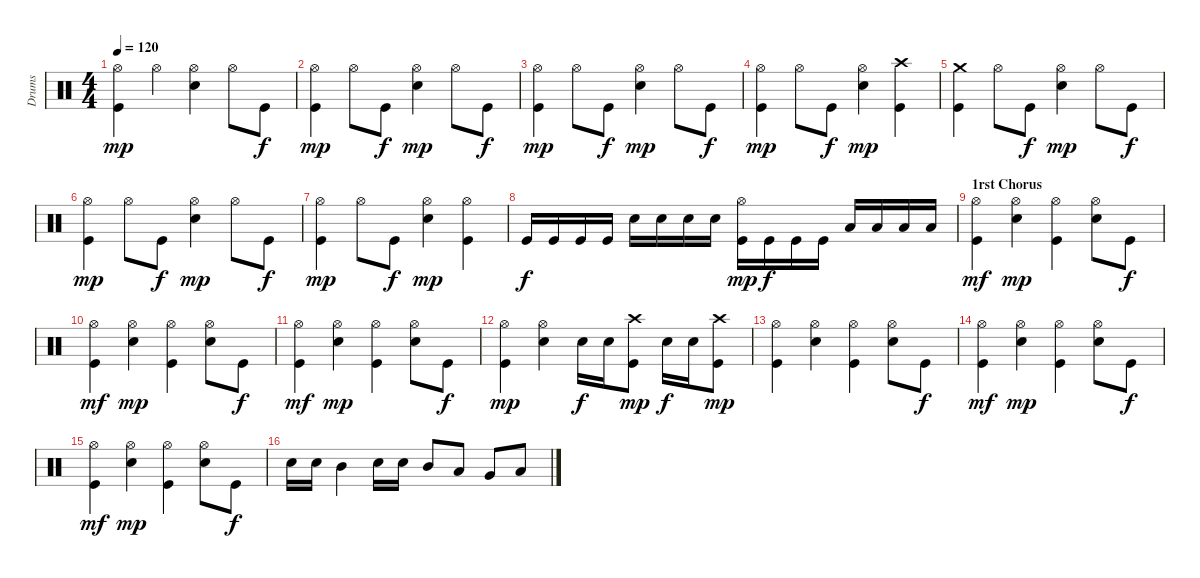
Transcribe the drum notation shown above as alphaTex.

\track ("Drums" "Drums") {instrument percussion}
\staff {score}
\articulation defaults
\ts (4 4)
\tempo 120
\clef neutral
\ks c
("Hi-Hat (open)" "Kick (hit)").4{dy mp} "Hi-Hat (open)".4 ("Hi-Hat (open)" "Electric Snare (hit)").4 "Hi-Hat (open)".8 "Kick (hit)".8{dy f} |
("Hi-Hat (open)" "Kick (hit)").4{dy mp} "Hi-Hat (open)".8 "Kick (hit)".8{dy f} ("Hi-Hat (open)" "Electric Snare (hit)").4{dy mp} "Hi-Hat (open)".8 "Kick (hit)".8{dy f} |
("Hi-Hat (open)" "Kick (hit)").4{dy mp} "Hi-Hat (open)".8 "Kick (hit)".8{dy f} ("Hi-Hat (open)" "Electric Snare (hit)").4{dy mp} "Hi-Hat (open)".8 "Kick (hit)".8{dy f} |
("Hi-Hat (open)" "Kick (hit)").4{dy mp} "Hi-Hat (open)".8 "Kick (hit)".8{dy f} ("Hi-Hat (open)" "Electric Snare (hit)").4{dy mp} ("Crash high (hit)" "Kick (hit)").4 |
("Crash medium (hit)" "Kick (hit)").4 "Hi-Hat (open)".8 "Kick (hit)".8{dy f} ("Hi-Hat (open)" "Electric Snare (hit)").4{dy mp} "Hi-Hat (open)".8 "Kick (hit)".8{dy f} |
("Hi-Hat (open)" "Kick (hit)").4{dy mp} "Hi-Hat (open)".8 "Kick (hit)".8{dy f} ("Hi-Hat (open)" "Electric Snare (hit)").4{dy mp} "Hi-Hat (open)".8 "Kick (hit)".8{dy f} |
("Hi-Hat (open)" "Kick (hit)").4{dy mp} "Hi-Hat (open)".8 "Kick (hit)".8{dy f} ("Hi-Hat (open)" "Electric Snare (hit)").4{dy mp} ("Hi-Hat (open)" "Kick (hit)").4 |
"Kick (hit)".16{dy f} "Kick (hit)".16 "Kick (hit)".16 "Kick (hit)".16 "Electric Snare (hit)".16 "Electric Snare (hit)".16 "Electric Snare (hit)".16 "Electric Snare (hit)".16 ("Hi-Hat (open)" "Kick (hit)").16{dy mp} "Kick (hit)".16{dy f} "Kick (hit)".16 "Kick (hit)".16 "Low Floor Tom (hit)".16 "Low Floor Tom (hit)".16 "Low Floor Tom (hit)".16 "Low Floor Tom (hit)".16 |
\section ("" "1rst Chorus")
("Hi-Hat (open)" "Kick (hit)").4{dy mf} ("Hi-Hat (open)" "Electric Snare (hit)").4{dy mp} ("Hi-Hat (open)" "Kick (hit)").4 ("Hi-Hat (open)" "Electric Snare (hit)").8 "Kick (hit)".8{dy f} |
("Hi-Hat (open)" "Kick (hit)").4{dy mf} ("Hi-Hat (open)" "Electric Snare (hit)").4{dy mp} ("Hi-Hat (open)" "Kick (hit)").4 ("Hi-Hat (open)" "Electric Snare (hit)").8 "Kick (hit)".8{dy f} |
("Hi-Hat (open)" "Kick (hit)").4{dy mf} ("Hi-Hat (open)" "Electric Snare (hit)").4{dy mp} ("Hi-Hat (open)" "Kick (hit)").4 ("Hi-Hat (open)" "Electric Snare (hit)").8 "Kick (hit)".8{dy f} |
("Hi-Hat (open)" "Kick (hit)").4{dy mp} ("Hi-Hat (open)" "Electric Snare (hit)").4 "Electric Snare (hit)".16{dy f} "Electric Snare (hit)".16 ("Crash high (hit)" "Kick (hit)").8{dy mp} "Electric Snare (hit)".16{dy f} "Electric Snare (hit)".16 ("Crash high (hit)" "Kick (hit)").8{dy mp} |
("Hi-Hat (open)" "Kick (hit)").4 ("Hi-Hat (open)" "Electric Snare (hit)").4 ("Hi-Hat (open)" "Kick (hit)").4 ("Hi-Hat (open)" "Electric Snare (hit)").8 "Kick (hit)".8{dy f} |
("Hi-Hat (open)" "Kick (hit)").4{dy mf} ("Hi-Hat (open)" "Electric Snare (hit)").4{dy mp} ("Hi-Hat (open)" "Kick (hit)").4 ("Hi-Hat (open)" "Electric Snare (hit)").8 "Kick (hit)".8{dy f} |
("Hi-Hat (open)" "Kick (hit)").4{dy mf} ("Hi-Hat (open)" "Electric Snare (hit)").4{dy mp} ("Hi-Hat (open)" "Kick (hit)").4 ("Hi-Hat (open)" "Electric Snare (hit)").8 "Kick (hit)".8{dy f} |
"Electric Snare (hit)".16 "Electric Snare (hit)".16 "Mid Tom (hit)".4 "Electric Snare (hit)".16 "Electric Snare (hit)".16 "Mid Tom (hit)".8 "Low Tom (hit)".8 "Very Low Tom (hit)".8 "Low Floor Tom (hit)".8
